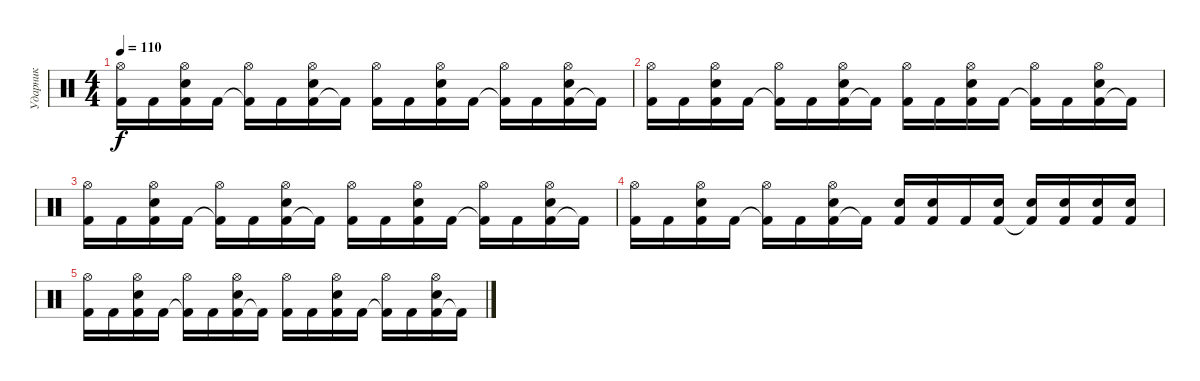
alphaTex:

\track ("Ударник" "Ударник") {instrument percussion}
\staff
\articulation defaults
\ts (4 4)
\tempo 110
\clef neutral
\ks c
("Kick (hit) 2" "Hi-Hat (open)").16{dy f} "Kick (hit) 2".16 ("Kick (hit) 2" "Snare (hit) 2" "Hi-Hat (open)").16 "Kick (hit) 2".16 ("Kick (hit) 2"{t} "Hi-Hat (open)").16 "Kick (hit) 2".16 ("Kick (hit) 2" "Snare (hit) 2" "Hi-Hat (open)").16 "Kick (hit) 2"{t}.16 ("Kick (hit) 2" "Hi-Hat (open)").16 "Kick (hit) 2".16 ("Kick (hit) 2" "Snare (hit) 2" "Hi-Hat (open)").16 "Kick (hit) 2".16 ("Kick (hit) 2"{t} "Hi-Hat (open)").16 "Kick (hit) 2".16 ("Kick (hit) 2" "Snare (hit) 2" "Hi-Hat (open)").16 "Kick (hit) 2"{t}.16 |
("Kick (hit) 2" "Hi-Hat (open)").16{volume 0} "Kick (hit) 2".16 ("Kick (hit) 2" "Snare (hit) 2" "Hi-Hat (open)").16 "Kick (hit) 2".16 ("Kick (hit) 2"{t} "Hi-Hat (open)").16 "Kick (hit) 2".16 ("Kick (hit) 2" "Snare (hit) 2" "Hi-Hat (open)").16 "Kick (hit) 2"{t}.16 ("Kick (hit) 2" "Hi-Hat (open)").16 "Kick (hit) 2".16 ("Kick (hit) 2" "Snare (hit) 2" "Hi-Hat (open)").16 "Kick (hit) 2".16 ("Kick (hit) 2"{t} "Hi-Hat (open)").16 "Kick (hit) 2".16 ("Kick (hit) 2" "Snare (hit) 2" "Hi-Hat (open)").16 "Kick (hit) 2"{t}.16 |
("Kick (hit) 2" "Hi-Hat (open)").16 "Kick (hit) 2".16 ("Kick (hit) 2" "Snare (hit) 2" "Hi-Hat (open)").16 "Kick (hit) 2".16 ("Kick (hit) 2"{t} "Hi-Hat (open)").16 "Kick (hit) 2".16 ("Kick (hit) 2" "Snare (hit) 2" "Hi-Hat (open)").16 "Kick (hit) 2"{t}.16 ("Kick (hit) 2" "Hi-Hat (open)").16 "Kick (hit) 2".16 ("Kick (hit) 2" "Snare (hit) 2" "Hi-Hat (open)").16 "Kick (hit) 2".16 ("Kick (hit) 2"{t} "Hi-Hat (open)").16 "Kick (hit) 2".16 ("Kick (hit) 2" "Snare (hit) 2" "Hi-Hat (open)").16 "Kick (hit) 2"{t}.16 |
("Kick (hit) 2" "Hi-Hat (open)").16 "Kick (hit) 2".16 ("Kick (hit) 2" "Snare (hit) 2" "Hi-Hat (open)").16 "Kick (hit) 2".16 ("Kick (hit) 2"{t} "Hi-Hat (open)").16 "Kick (hit) 2".16 ("Kick (hit) 2" "Snare (hit) 2" "Hi-Hat (open)").16 "Kick (hit) 2"{t}.16 ("Kick (hit) 2" "Snare (hit) 2").16 ("Kick (hit) 2" "Snare (hit) 2").16 "Kick (hit) 2".16 ("Kick (hit) 2" "Snare (hit) 2").16 ("Kick (hit) 2"{t} "Snare (hit) 2").16 ("Kick (hit) 2" "Snare (hit) 2").16 ("Kick (hit) 2" "Snare (hit) 2").16 ("Kick (hit) 2" "Snare (hit) 2").16 |
("Kick (hit) 2" "Hi-Hat (open)").16 "Kick (hit) 2".16 ("Kick (hit) 2" "Snare (hit) 2" "Hi-Hat (open)").16 "Kick (hit) 2".16 ("Kick (hit) 2"{t} "Hi-Hat (open)").16 "Kick (hit) 2".16 ("Kick (hit) 2" "Snare (hit) 2" "Hi-Hat (open)").16 "Kick (hit) 2"{t}.16 ("Kick (hit) 2" "Hi-Hat (open)").16 "Kick (hit) 2".16 ("Kick (hit) 2" "Snare (hit) 2" "Hi-Hat (open)").16 "Kick (hit) 2".16 ("Kick (hit) 2"{t} "Hi-Hat (open)").16 "Kick (hit) 2".16 ("Kick (hit) 2" "Snare (hit) 2" "Hi-Hat (open)").16 "Kick (hit) 2"{t}.16
